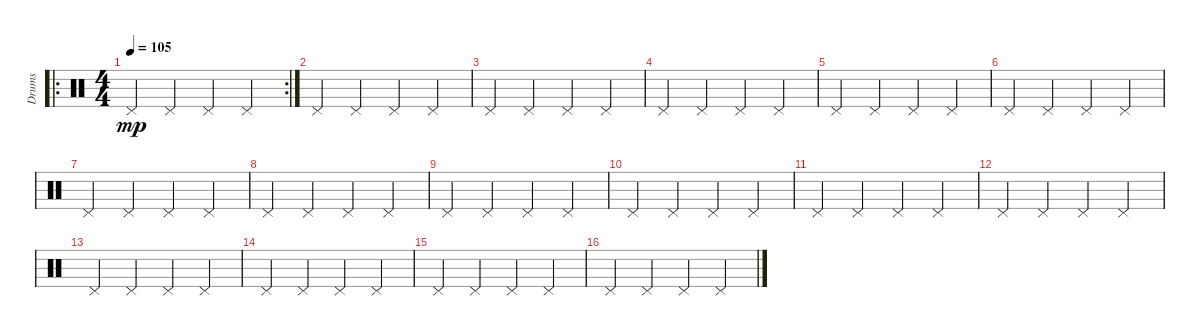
\track ("Drums" "Drums") {instrument percussion}
\staff {score}
\articulation defaults
\ro
\rc 2
\ts (4 4)
\tempo 105
\clef neutral
\ks c "Pedal Hi-Hat (hit)".4{dy mp} "Pedal Hi-Hat (hit)".4 "Pedal Hi-Hat (hit)".4 "Pedal Hi-Hat (hit)".4
|
"Pedal Hi-Hat (hit)".4 "Pedal Hi-Hat (hit)".4 "Pedal Hi-Hat (hit)".4 "Pedal Hi-Hat (hit)".4 |
"Pedal Hi-Hat (hit)".4 "Pedal Hi-Hat (hit)".4 "Pedal Hi-Hat (hit)".4 "Pedal Hi-Hat (hit)".4 |
"Pedal Hi-Hat (hit)".4 "Pedal Hi-Hat (hit)".4 "Pedal Hi-Hat (hit)".4 "Pedal Hi-Hat (hit)".4 |
"Pedal Hi-Hat (hit)".4 "Pedal Hi-Hat (hit)".4 "Pedal Hi-Hat (hit)".4 "Pedal Hi-Hat (hit)".4 |
"Pedal Hi-Hat (hit)".4 "Pedal Hi-Hat (hit)".4 "Pedal Hi-Hat (hit)".4 "Pedal Hi-Hat (hit)".4 |
"Pedal Hi-Hat (hit)".4 "Pedal Hi-Hat (hit)".4 "Pedal Hi-Hat (hit)".4 "Pedal Hi-Hat (hit)".4 |
"Pedal Hi-Hat (hit)".4 "Pedal Hi-Hat (hit)".4 "Pedal Hi-Hat (hit)".4 "Pedal Hi-Hat (hit)".4 |
"Pedal Hi-Hat (hit)".4 "Pedal Hi-Hat (hit)".4 "Pedal Hi-Hat (hit)".4 "Pedal Hi-Hat (hit)".4 |
"Pedal Hi-Hat (hit)".4 "Pedal Hi-Hat (hit)".4 "Pedal Hi-Hat (hit)".4 "Pedal Hi-Hat (hit)".4 |
"Pedal Hi-Hat (hit)".4 "Pedal Hi-Hat (hit)".4 "Pedal Hi-Hat (hit)".4 "Pedal Hi-Hat (hit)".4 |
"Pedal Hi-Hat (hit)".4 "Pedal Hi-Hat (hit)".4 "Pedal Hi-Hat (hit)".4 "Pedal Hi-Hat (hit)".4 |
"Pedal Hi-Hat (hit)".4 "Pedal Hi-Hat (hit)".4 "Pedal Hi-Hat (hit)".4 "Pedal Hi-Hat (hit)".4 |
"Pedal Hi-Hat (hit)".4 "Pedal Hi-Hat (hit)".4 "Pedal Hi-Hat (hit)".4 "Pedal Hi-Hat (hit)".4 |
"Pedal Hi-Hat (hit)".4 "Pedal Hi-Hat (hit)".4 "Pedal Hi-Hat (hit)".4 "Pedal Hi-Hat (hit)".4 |
"Pedal Hi-Hat (hit)".4 "Pedal Hi-Hat (hit)".4 "Pedal Hi-Hat (hit)".4 "Pedal Hi-Hat (hit)".4
